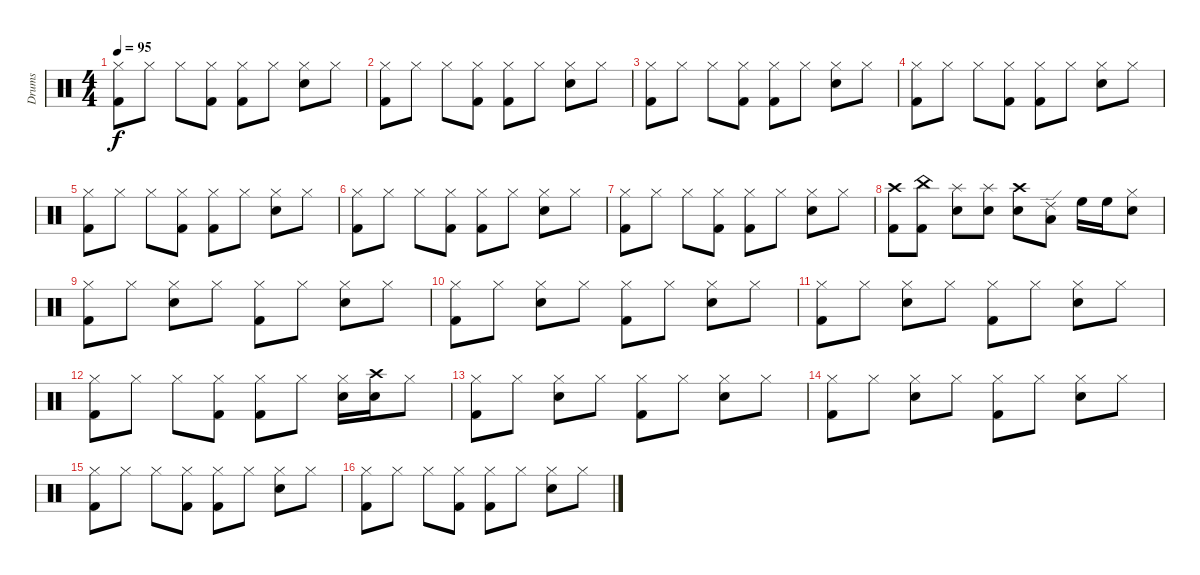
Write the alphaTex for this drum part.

\track ("Drums" "Drums") {instrument percussion}
\staff {score}
\articulation defaults
\ts (4 4)
\tempo 95
\clef neutral
\ks c
("Kick (hit) 2" "Hi-Hat (closed)").8{dy f} "Hi-Hat (closed)".8 "Hi-Hat (closed)".8 ("Kick (hit) 2" "Hi-Hat (closed)").8 ("Kick (hit) 2" "Hi-Hat (closed)").8 "Hi-Hat (closed)".8 ("Snare (hit) 2" "Hi-Hat (closed)").8 "Hi-Hat (closed)".8 |
("Kick (hit) 2" "Hi-Hat (closed)").8 "Hi-Hat (closed)".8 "Hi-Hat (closed)".8 ("Kick (hit) 2" "Hi-Hat (closed)").8 ("Kick (hit) 2" "Hi-Hat (closed)").8 "Hi-Hat (closed)".8 ("Snare (hit) 2" "Hi-Hat (closed)").8 "Hi-Hat (closed)".8 |
("Kick (hit) 2" "Hi-Hat (closed)").8 "Hi-Hat (closed)".8 "Hi-Hat (closed)".8 ("Kick (hit) 2" "Hi-Hat (closed)").8 ("Kick (hit) 2" "Hi-Hat (closed)").8 "Hi-Hat (closed)".8 ("Snare (hit) 2" "Hi-Hat (closed)").8 "Hi-Hat (closed)".8 |
("Kick (hit) 2" "Hi-Hat (closed)").8 "Hi-Hat (closed)".8 "Hi-Hat (closed)".8 ("Kick (hit) 2" "Hi-Hat (closed)").8 ("Kick (hit) 2" "Hi-Hat (closed)").8 "Hi-Hat (closed)".8 ("Snare (hit) 2" "Hi-Hat (closed)").8 "Hi-Hat (closed)".8 |
("Kick (hit) 2" "Hi-Hat (closed)").8 "Hi-Hat (closed)".8 "Hi-Hat (closed)".8 ("Kick (hit) 2" "Hi-Hat (closed)").8 ("Kick (hit) 2" "Hi-Hat (closed)").8 "Hi-Hat (closed)".8 ("Snare (hit) 2" "Hi-Hat (closed)").8 "Hi-Hat (closed)".8 |
("Kick (hit) 2" "Hi-Hat (closed)").8 "Hi-Hat (closed)".8 "Hi-Hat (closed)".8 ("Kick (hit) 2" "Hi-Hat (closed)").8 ("Kick (hit) 2" "Hi-Hat (closed)").8 "Hi-Hat (closed)".8 ("Snare (hit) 2" "Hi-Hat (closed)").8 "Hi-Hat (closed)".8 |
("Kick (hit) 2" "Hi-Hat (closed)").8 "Hi-Hat (closed)".8 "Hi-Hat (closed)".8 ("Kick (hit) 2" "Hi-Hat (closed)").8 ("Kick (hit) 2" "Hi-Hat (closed)").8 "Hi-Hat (closed)".8 ("Snare (hit) 2" "Hi-Hat (closed)").8 "Hi-Hat (closed)".8 |
("Kick (hit) 2" "Crash high (hit)").8 ("Kick (hit) 2" "China (hit)").8 ("Snare (hit) 2" "Splash (hit)").8 ("Snare (hit) 2" "Splash (hit)").8 ("Snare (hit) 2" "Crash high (hit)").8 ("Low Tom (hit)" "Ride (edge) 2").8 "High Floor Tom (hit)".16 "High Floor Tom (hit)".16 ("Electric Snare (hit)" "Hi-Hat (closed)").8 |
("Kick (hit) 2" "Hi-Hat (closed)").8 "Hi-Hat (closed)".8 ("Snare (hit) 2" "Hi-Hat (closed)").8 "Hi-Hat (closed)".8 ("Kick (hit) 2" "Hi-Hat (closed)").8 "Hi-Hat (closed)".8 ("Snare (hit) 2" "Hi-Hat (closed)").8 "Hi-Hat (closed)".8 |
("Kick (hit) 2" "Hi-Hat (closed)").8 "Hi-Hat (closed)".8 ("Snare (hit) 2" "Hi-Hat (closed)").8 "Hi-Hat (closed)".8 ("Kick (hit) 2" "Hi-Hat (closed)").8 "Hi-Hat (closed)".8 ("Snare (hit) 2" "Hi-Hat (closed)").8 "Hi-Hat (closed)".8 |
("Kick (hit) 2" "Hi-Hat (closed)").8 "Hi-Hat (closed)".8 ("Snare (hit) 2" "Hi-Hat (closed)").8 "Hi-Hat (closed)".8 ("Kick (hit) 2" "Hi-Hat (closed)").8 "Hi-Hat (closed)".8 ("Snare (hit) 2" "Hi-Hat (closed)").8 "Hi-Hat (closed)".8 |
("Kick (hit) 2" "Hi-Hat (closed)").8 "Hi-Hat (closed)".8 "Hi-Hat (closed)".8 ("Kick (hit) 2" "Hi-Hat (closed)").8 ("Kick (hit) 2" "Hi-Hat (closed)").8 "Hi-Hat (closed)".8 ("Snare (hit) 2" "Hi-Hat (closed)").16 ("Snare (hit) 2" "Crash high (hit)").16 "Hi-Hat (closed)".8 |
("Kick (hit) 2" "Hi-Hat (closed)").8 "Hi-Hat (closed)".8 ("Snare (hit) 2" "Hi-Hat (closed)").8 "Hi-Hat (closed)".8 ("Kick (hit) 2" "Hi-Hat (closed)").8 "Hi-Hat (closed)".8 ("Snare (hit) 2" "Hi-Hat (closed)").8 "Hi-Hat (closed)".8 |
("Kick (hit) 2" "Hi-Hat (closed)").8 "Hi-Hat (closed)".8 ("Snare (hit) 2" "Hi-Hat (closed)").8 "Hi-Hat (closed)".8 ("Kick (hit) 2" "Hi-Hat (closed)").8 "Hi-Hat (closed)".8 ("Snare (hit) 2" "Hi-Hat (closed)").8 "Hi-Hat (closed)".8 |
("Kick (hit) 2" "Hi-Hat (closed)").8 "Hi-Hat (closed)".8 "Hi-Hat (closed)".8 ("Kick (hit) 2" "Hi-Hat (closed)").8 ("Kick (hit) 2" "Hi-Hat (closed)").8 "Hi-Hat (closed)".8 ("Snare (hit) 2" "Hi-Hat (closed)").8 "Hi-Hat (closed)".8 |
("Kick (hit) 2" "Hi-Hat (closed)").8 "Hi-Hat (closed)".8 "Hi-Hat (closed)".8 ("Kick (hit) 2" "Hi-Hat (closed)").8 ("Kick (hit) 2" "Hi-Hat (closed)").8 "Hi-Hat (closed)".8 ("Snare (hit) 2" "Hi-Hat (closed)").8 "Hi-Hat (closed)".8
